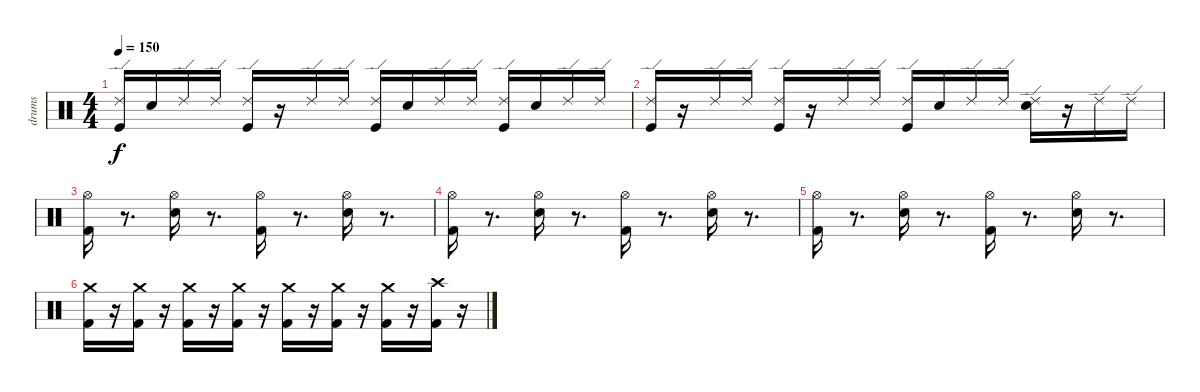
\track ("drums" "drums") {instrument percussion}
\staff {score}
\articulation defaults
\ts (4 4)
\tempo 150
\clef neutral
\ks c
("Kick (hit)" "Ride (edge) 2").16{dy f} "Snare (hit) 2".16 "Ride (edge) 2".16 "Ride (edge) 2".16 ("Kick (hit)" "Ride (edge) 2").16 r.16 "Ride (edge) 2".16 "Ride (edge) 2".16 ("Kick (hit)" "Ride (edge) 2").16 "Snare (hit) 2".16 "Ride (edge) 2".16 "Ride (edge) 2".16 ("Kick (hit)" "Ride (edge) 2").16 "Snare (hit) 2".16 "Ride (edge) 2".16 "Ride (edge) 2".16 |
("Kick (hit)" "Ride (edge) 2").16 r.16 "Ride (edge) 2".16 "Ride (edge) 2".16 ("Kick (hit)" "Ride (edge) 2").16 r.16 "Ride (edge) 2".16 "Ride (edge) 2".16 ("Kick (hit)" "Ride (edge) 2").16 "Snare (hit) 2".16 "Ride (edge) 2".16 "Ride (edge) 2".16 ("Snare (hit) 2" "Ride (edge) 2").16 r.16 "Ride (edge) 2".16 "Ride (edge) 2".16 |
("Kick (hit) 2" "Hi-Hat (open)").16 r.8{d} ("Electric Snare (hit)" "Hi-Hat (open)").16 r.8{d} ("Kick (hit) 2" "Hi-Hat (open)").16 r.8{d} ("Electric Snare (hit)" "Hi-Hat (open)").16 r.8{d} |
("Kick (hit) 2" "Hi-Hat (open)").16 r.8{d} ("Electric Snare (hit)" "Hi-Hat (open)").16 r.8{d} ("Kick (hit) 2" "Hi-Hat (open)").16 r.8{d} ("Electric Snare (hit)" "Hi-Hat (open)").16 r.8{d} |
("Kick (hit) 2" "Hi-Hat (open)").16 r.8{d} ("Electric Snare (hit)" "Hi-Hat (open)").16 r.8{d} ("Kick (hit) 2" "Hi-Hat (open)").16 r.8{d} ("Electric Snare (hit)" "Hi-Hat (open)").16 r.8{d} |
("Kick (hit) 2" "Crash medium (hit)").16 r.16 ("Kick (hit) 2" "Crash medium (hit)").16 r.16 ("Kick (hit) 2" "Crash medium (hit)").16 r.16 ("Kick (hit) 2" "Crash medium (hit)").16 r.16 ("Kick (hit) 2" "Crash medium (hit)").16 r.16 ("Kick (hit) 2" "Crash medium (hit)").16 r.16 ("Kick (hit) 2" "Crash medium (hit)").16 r.16 ("Kick (hit) 2" "Crash high (hit)").16 r.16
